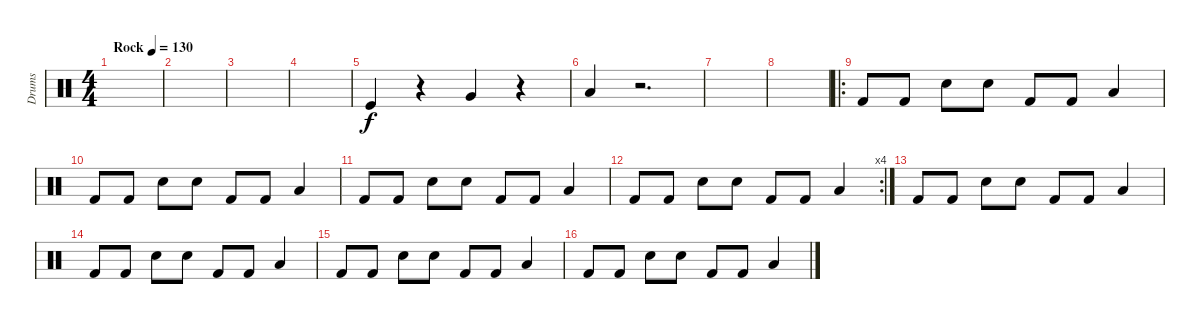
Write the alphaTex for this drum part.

\track ("Drums" "Drums") {instrument percussion}
\staff {score}
\articulation defaults
\ts (4 4)
\tempo (130 "Rock")
\clef neutral
\ks c
|
|
|
|
"Kick (hit)".4 r.4 "Very Low Tom (hit)".4 r.4 |
"Low Floor Tom (hit)".4 r.2{d} |
|
|
\ro "Kick (hit) 2".8 "Kick (hit) 2".8 "Electric Snare (hit)".8 "Electric Snare (hit)".8 "Kick (hit) 2".8 "Kick (hit) 2".8 "Low Floor Tom (hit)".4
|
"Kick (hit) 2".8 "Kick (hit) 2".8 "Electric Snare (hit)".8 "Electric Snare (hit)".8 "Kick (hit) 2".8 "Kick (hit) 2".8 "Low Floor Tom (hit)".4 |
"Kick (hit) 2".8 "Kick (hit) 2".8 "Electric Snare (hit)".8 "Electric Snare (hit)".8 "Kick (hit) 2".8 "Kick (hit) 2".8 "Low Floor Tom (hit)".4 |
\rc 4 "Kick (hit) 2".8 "Kick (hit) 2".8 "Electric Snare (hit)".8 "Electric Snare (hit)".8 "Kick (hit) 2".8 "Kick (hit) 2".8 "Low Floor Tom (hit)".4
|
"Kick (hit) 2".8 "Kick (hit) 2".8 "Electric Snare (hit)".8 "Electric Snare (hit)".8 "Kick (hit) 2".8 "Kick (hit) 2".8 "Low Floor Tom (hit)".4 |
"Kick (hit) 2".8 "Kick (hit) 2".8 "Electric Snare (hit)".8 "Electric Snare (hit)".8 "Kick (hit) 2".8 "Kick (hit) 2".8 "Low Floor Tom (hit)".4 |
"Kick (hit) 2".8 "Kick (hit) 2".8 "Electric Snare (hit)".8 "Electric Snare (hit)".8 "Kick (hit) 2".8 "Kick (hit) 2".8 "Low Floor Tom (hit)".4 |
"Kick (hit) 2".8 "Kick (hit) 2".8 "Electric Snare (hit)".8 "Electric Snare (hit)".8 "Kick (hit) 2".8 "Kick (hit) 2".8 "Low Floor Tom (hit)".4
